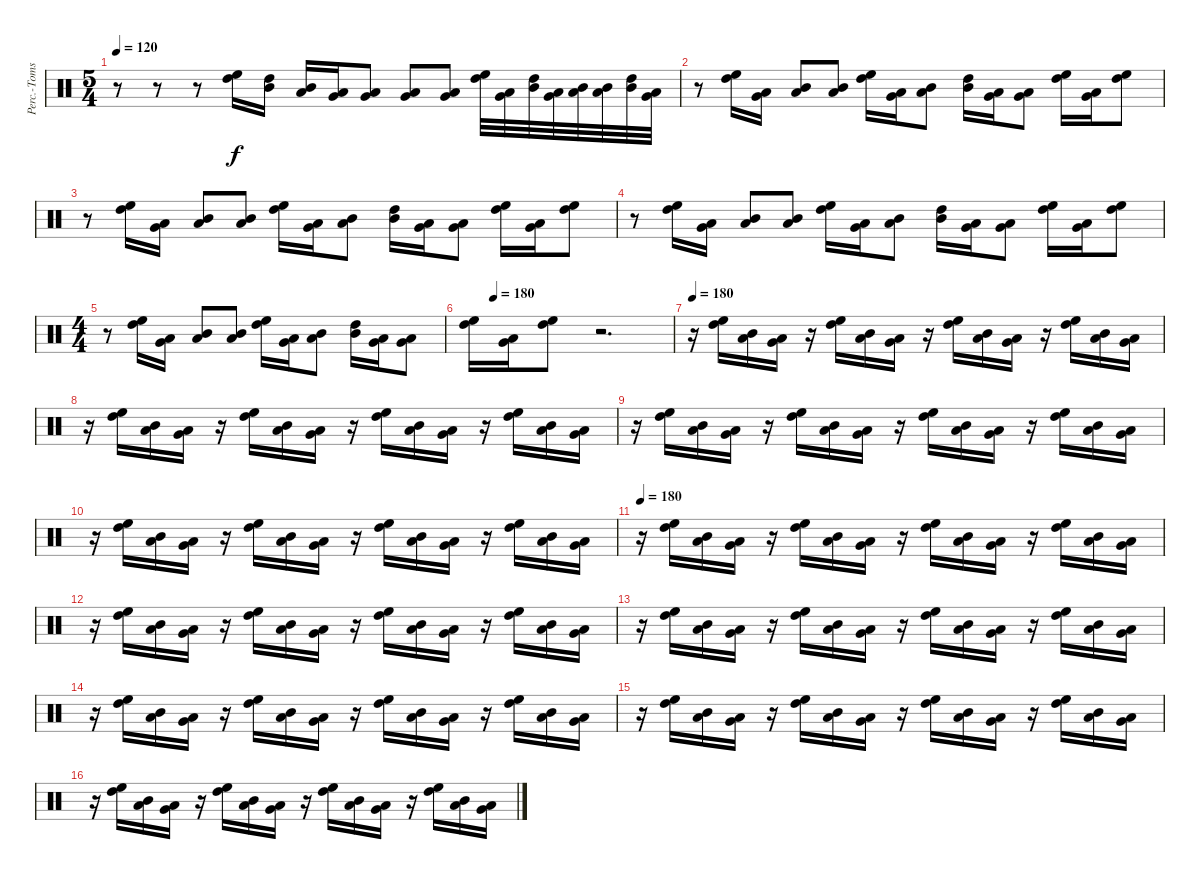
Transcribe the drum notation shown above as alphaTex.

\track ("Perc.-Toms 2" "Perc.-Toms") {instrument percussion}
\staff {score}
\articulation defaults
\ts (5 4)
\tempo 120
\clef neutral
\ks c
r.8{dy f} r.8 r.8 ("High Floor Tom (hit)" "High Tom (hit)").16 ("High Tom (hit)" "Mid Tom (hit)").16 ("Mid Tom (hit)" "Low Tom (hit)").16 ("Low Tom (hit)" "Very Low Tom (hit)").16 ("Very Low Tom (hit)" "Low Floor Tom (hit)").8 ("Very Low Tom (hit)" "Low Floor Tom (hit)").8 ("Very Low Tom (hit)" "Low Floor Tom (hit)").8 ("High Floor Tom (hit)" "High Tom (hit)").32 ("Very Low Tom (hit)" "Low Floor Tom (hit)").32 ("High Tom (hit)" "Mid Tom (hit)").32 ("Low Tom (hit)" "Very Low Tom (hit)").32 ("Mid Tom (hit)" "Low Tom (hit)").32 ("Low Tom (hit)" "Mid Tom (hit)").32 ("High Tom (hit)" "Mid Tom (hit)").32 ("Very Low Tom (hit)" "Low Floor Tom (hit)").32 |
r.8 ("High Floor Tom (hit)" "High Tom (hit)").16 ("Very Low Tom (hit)" "Low Floor Tom (hit)").16 ("Mid Tom (hit)" "Low Tom (hit)").8 ("Mid Tom (hit)" "Low Tom (hit)").8 ("High Floor Tom (hit)" "High Tom (hit)").16 ("Low Tom (hit)" "Very Low Tom (hit)").16 ("Mid Tom (hit)" "Low Tom (hit)").8 ("High Tom (hit)" "Mid Tom (hit)").16 ("Very Low Tom (hit)" "Low Floor Tom (hit)").16 ("Low Tom (hit)" "Very Low Tom (hit)").8 ("High Floor Tom (hit)" "High Tom (hit)").16 ("Very Low Tom (hit)" "Low Floor Tom (hit)").16 ("High Floor Tom (hit)" "High Tom (hit)").8 |
r.8 ("High Floor Tom (hit)" "High Tom (hit)").16 ("Very Low Tom (hit)" "Low Floor Tom (hit)").16 ("Mid Tom (hit)" "Low Tom (hit)").8 ("Mid Tom (hit)" "Low Tom (hit)").8 ("High Floor Tom (hit)" "High Tom (hit)").16 ("Low Tom (hit)" "Very Low Tom (hit)").16 ("Mid Tom (hit)" "Low Tom (hit)").8 ("High Tom (hit)" "Mid Tom (hit)").16 ("Very Low Tom (hit)" "Low Floor Tom (hit)").16 ("Low Tom (hit)" "Very Low Tom (hit)").8 ("High Floor Tom (hit)" "High Tom (hit)").16 ("Very Low Tom (hit)" "Low Floor Tom (hit)").16 ("High Floor Tom (hit)" "High Tom (hit)").8 |
r.8 ("High Floor Tom (hit)" "High Tom (hit)").16 ("Very Low Tom (hit)" "Low Floor Tom (hit)").16 ("Mid Tom (hit)" "Low Tom (hit)").8 ("Mid Tom (hit)" "Low Tom (hit)").8 ("High Floor Tom (hit)" "High Tom (hit)").16 ("Low Tom (hit)" "Very Low Tom (hit)").16 ("Mid Tom (hit)" "Low Tom (hit)").8 ("High Tom (hit)" "Mid Tom (hit)").16 ("Very Low Tom (hit)" "Low Floor Tom (hit)").16 ("Low Tom (hit)" "Very Low Tom (hit)").8 ("High Floor Tom (hit)" "High Tom (hit)").16 ("Very Low Tom (hit)" "Low Floor Tom (hit)").16 ("High Floor Tom (hit)" "High Tom (hit)").8 |
\ts (4 4)
r.8 ("High Floor Tom (hit)" "High Tom (hit)").16 ("Very Low Tom (hit)" "Low Floor Tom (hit)").16 ("Mid Tom (hit)" "Low Tom (hit)").8 ("Mid Tom (hit)" "Low Tom (hit)").8 ("High Floor Tom (hit)" "High Tom (hit)").16 ("Low Tom (hit)" "Very Low Tom (hit)").16 ("Mid Tom (hit)" "Low Tom (hit)").8 ("High Tom (hit)" "Mid Tom (hit)").16 ("Very Low Tom (hit)" "Low Floor Tom (hit)").16 ("Low Tom (hit)" "Very Low Tom (hit)").8 |
\tempo (180 0.125)
("High Floor Tom (hit)" "High Tom (hit)").16 ("Very Low Tom (hit)" "Low Floor Tom (hit)").16 ("High Floor Tom (hit)" "High Tom (hit)").8 r.2{d} |
\tempo 180
r.16 ("High Floor Tom (hit)" "High Tom (hit)").16 ("Mid Tom (hit)" "Low Tom (hit)").16 ("Very Low Tom (hit)" "Low Floor Tom (hit)").16 r.16 ("High Floor Tom (hit)" "High Tom (hit)").16 ("Mid Tom (hit)" "Low Tom (hit)").16 ("Very Low Tom (hit)" "Low Floor Tom (hit)").16 r.16 ("High Floor Tom (hit)" "High Tom (hit)").16 ("Mid Tom (hit)" "Low Tom (hit)").16 ("Very Low Tom (hit)" "Low Floor Tom (hit)").16 r.16 ("High Floor Tom (hit)" "High Tom (hit)").16 ("Mid Tom (hit)" "Low Tom (hit)").16 ("Very Low Tom (hit)" "Low Floor Tom (hit)").16 |
r.16 ("High Floor Tom (hit)" "High Tom (hit)").16 ("Mid Tom (hit)" "Low Tom (hit)").16 ("Very Low Tom (hit)" "Low Floor Tom (hit)").16 r.16 ("High Floor Tom (hit)" "High Tom (hit)").16 ("Mid Tom (hit)" "Low Tom (hit)").16 ("Very Low Tom (hit)" "Low Floor Tom (hit)").16 r.16 ("High Floor Tom (hit)" "High Tom (hit)").16 ("Mid Tom (hit)" "Low Tom (hit)").16 ("Very Low Tom (hit)" "Low Floor Tom (hit)").16 r.16 ("High Floor Tom (hit)" "High Tom (hit)").16 ("Mid Tom (hit)" "Low Tom (hit)").16 ("Very Low Tom (hit)" "Low Floor Tom (hit)").16 |
r.16 ("High Floor Tom (hit)" "High Tom (hit)").16 ("Mid Tom (hit)" "Low Tom (hit)").16 ("Very Low Tom (hit)" "Low Floor Tom (hit)").16 r.16 ("High Floor Tom (hit)" "High Tom (hit)").16 ("Mid Tom (hit)" "Low Tom (hit)").16 ("Very Low Tom (hit)" "Low Floor Tom (hit)").16 r.16 ("High Floor Tom (hit)" "High Tom (hit)").16 ("Mid Tom (hit)" "Low Tom (hit)").16 ("Very Low Tom (hit)" "Low Floor Tom (hit)").16 r.16 ("High Floor Tom (hit)" "High Tom (hit)").16 ("Mid Tom (hit)" "Low Tom (hit)").16 ("Very Low Tom (hit)" "Low Floor Tom (hit)").16 |
r.16 ("High Floor Tom (hit)" "High Tom (hit)").16 ("Mid Tom (hit)" "Low Tom (hit)").16 ("Very Low Tom (hit)" "Low Floor Tom (hit)").16 r.16 ("High Floor Tom (hit)" "High Tom (hit)").16 ("Mid Tom (hit)" "Low Tom (hit)").16 ("Very Low Tom (hit)" "Low Floor Tom (hit)").16 r.16 ("High Floor Tom (hit)" "High Tom (hit)").16 ("Mid Tom (hit)" "Low Tom (hit)").16 ("Very Low Tom (hit)" "Low Floor Tom (hit)").16 r.16 ("High Floor Tom (hit)" "High Tom (hit)").16 ("Mid Tom (hit)" "Low Tom (hit)").16 ("Very Low Tom (hit)" "Low Floor Tom (hit)").16 |
\tempo 180
r.16 ("High Floor Tom (hit)" "High Tom (hit)").16 ("Mid Tom (hit)" "Low Tom (hit)").16 ("Very Low Tom (hit)" "Low Floor Tom (hit)").16 r.16 ("High Floor Tom (hit)" "High Tom (hit)").16 ("Mid Tom (hit)" "Low Tom (hit)").16 ("Very Low Tom (hit)" "Low Floor Tom (hit)").16 r.16 ("High Floor Tom (hit)" "High Tom (hit)").16 ("Mid Tom (hit)" "Low Tom (hit)").16 ("Very Low Tom (hit)" "Low Floor Tom (hit)").16 r.16 ("High Floor Tom (hit)" "High Tom (hit)").16 ("Mid Tom (hit)" "Low Tom (hit)").16 ("Very Low Tom (hit)" "Low Floor Tom (hit)").16 |
r.16 ("High Floor Tom (hit)" "High Tom (hit)").16 ("Mid Tom (hit)" "Low Tom (hit)").16 ("Very Low Tom (hit)" "Low Floor Tom (hit)").16 r.16 ("High Floor Tom (hit)" "High Tom (hit)").16 ("Mid Tom (hit)" "Low Tom (hit)").16 ("Very Low Tom (hit)" "Low Floor Tom (hit)").16 r.16 ("High Floor Tom (hit)" "High Tom (hit)").16 ("Mid Tom (hit)" "Low Tom (hit)").16 ("Very Low Tom (hit)" "Low Floor Tom (hit)").16 r.16 ("High Floor Tom (hit)" "High Tom (hit)").16 ("Mid Tom (hit)" "Low Tom (hit)").16 ("Very Low Tom (hit)" "Low Floor Tom (hit)").16 |
r.16 ("High Floor Tom (hit)" "High Tom (hit)").16 ("Mid Tom (hit)" "Low Tom (hit)").16 ("Very Low Tom (hit)" "Low Floor Tom (hit)").16 r.16 ("High Floor Tom (hit)" "High Tom (hit)").16 ("Mid Tom (hit)" "Low Tom (hit)").16 ("Very Low Tom (hit)" "Low Floor Tom (hit)").16 r.16 ("High Floor Tom (hit)" "High Tom (hit)").16 ("Mid Tom (hit)" "Low Tom (hit)").16 ("Very Low Tom (hit)" "Low Floor Tom (hit)").16 r.16 ("High Floor Tom (hit)" "High Tom (hit)").16 ("Mid Tom (hit)" "Low Tom (hit)").16 ("Very Low Tom (hit)" "Low Floor Tom (hit)").16 |
r.16 ("High Floor Tom (hit)" "High Tom (hit)").16 ("Mid Tom (hit)" "Low Tom (hit)").16 ("Very Low Tom (hit)" "Low Floor Tom (hit)").16 r.16 ("High Floor Tom (hit)" "High Tom (hit)").16 ("Mid Tom (hit)" "Low Tom (hit)").16 ("Very Low Tom (hit)" "Low Floor Tom (hit)").16 r.16 ("High Floor Tom (hit)" "High Tom (hit)").16 ("Mid Tom (hit)" "Low Tom (hit)").16 ("Very Low Tom (hit)" "Low Floor Tom (hit)").16 r.16 ("High Floor Tom (hit)" "High Tom (hit)").16 ("Mid Tom (hit)" "Low Tom (hit)").16 ("Very Low Tom (hit)" "Low Floor Tom (hit)").16 |
r.16 ("High Floor Tom (hit)" "High Tom (hit)").16 ("Mid Tom (hit)" "Low Tom (hit)").16 ("Very Low Tom (hit)" "Low Floor Tom (hit)").16 r.16 ("High Floor Tom (hit)" "High Tom (hit)").16 ("Mid Tom (hit)" "Low Tom (hit)").16 ("Very Low Tom (hit)" "Low Floor Tom (hit)").16 r.16 ("High Floor Tom (hit)" "High Tom (hit)").16 ("Mid Tom (hit)" "Low Tom (hit)").16 ("Very Low Tom (hit)" "Low Floor Tom (hit)").16 r.16 ("High Floor Tom (hit)" "High Tom (hit)").16 ("Mid Tom (hit)" "Low Tom (hit)").16 ("Very Low Tom (hit)" "Low Floor Tom (hit)").16 |
r.16 ("High Floor Tom (hit)" "High Tom (hit)").16 ("Mid Tom (hit)" "Low Tom (hit)").16 ("Very Low Tom (hit)" "Low Floor Tom (hit)").16 r.16 ("High Floor Tom (hit)" "High Tom (hit)").16 ("Mid Tom (hit)" "Low Tom (hit)").16 ("Very Low Tom (hit)" "Low Floor Tom (hit)").16 r.16 ("High Floor Tom (hit)" "High Tom (hit)").16 ("Mid Tom (hit)" "Low Tom (hit)").16 ("Very Low Tom (hit)" "Low Floor Tom (hit)").16 r.16 ("High Floor Tom (hit)" "High Tom (hit)").16 ("Mid Tom (hit)" "Low Tom (hit)").16 ("Very Low Tom (hit)" "Low Floor Tom (hit)").16
